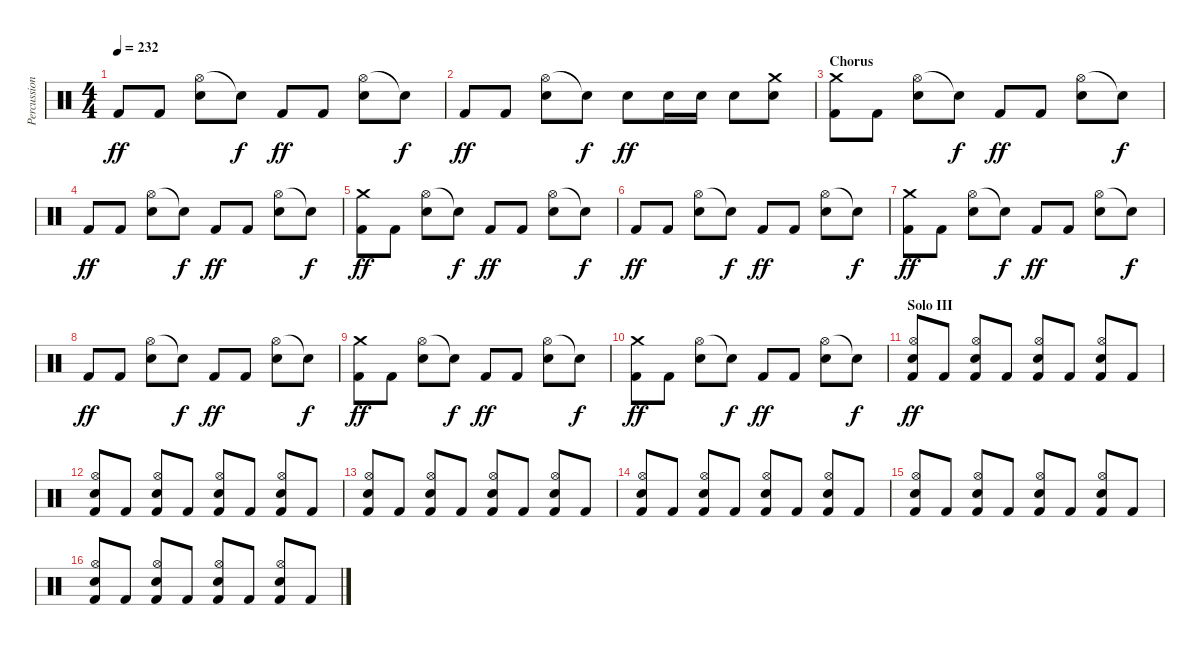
\track ("Percussion" "Percussion") {instrument percussion}
\staff {score}
\articulation defaults
\ts (4 4)
\tempo 232
\clef neutral
\ks c "Kick (hit) 2".8{dy ff} "Kick (hit) 2".8
("Hi-Hat (open)" "Snare (hit) 2").8 "Snare (hit)"{t}.8{dy f} "Kick (hit) 2".8{dy ff} "Kick (hit) 2".8 ("Hi-Hat (open)" "Snare (hit) 2").8 "Snare (hit)"{t}.8{dy f} |
"Kick (hit) 2".8{dy ff} "Kick (hit) 2".8 ("Hi-Hat (open)" "Snare (hit) 2").8 "Snare (hit)"{t}.8{dy f} "Snare (hit) 2".8{dy ff} "Snare (hit) 2".16 "Snare (hit) 2".16 "Snare (hit) 2".8 ("Crash medium (hit)" "Snare (hit) 2").8 |
\section ("" "Chorus")
("Crash medium (hit)" "Kick (hit) 2").8 "Kick (hit) 2".8 ("Hi-Hat (open)" "Snare (hit) 2").8 "Snare (hit)"{t}.8{dy f} "Kick (hit) 2".8{dy ff} "Kick (hit) 2".8 ("Hi-Hat (open)" "Snare (hit) 2").8 "Snare (hit)"{t}.8{dy f} |
"Kick (hit) 2".8{dy ff} "Kick (hit) 2".8 ("Hi-Hat (open)" "Snare (hit) 2").8 "Snare (hit)"{t}.8{dy f} "Kick (hit) 2".8{dy ff} "Kick (hit) 2".8 ("Hi-Hat (open)" "Snare (hit) 2").8 "Snare (hit)"{t}.8{dy f} |
("Crash medium (hit)" "Kick (hit) 2").8{dy ff} "Kick (hit) 2".8 ("Hi-Hat (open)" "Snare (hit) 2").8 "Snare (hit)"{t}.8{dy f} "Kick (hit) 2".8{dy ff} "Kick (hit) 2".8 ("Hi-Hat (open)" "Snare (hit) 2").8 "Snare (hit)"{t}.8{dy f} |
"Kick (hit) 2".8{dy ff} "Kick (hit) 2".8 ("Hi-Hat (open)" "Snare (hit) 2").8 "Snare (hit)"{t}.8{dy f} "Kick (hit) 2".8{dy ff} "Kick (hit) 2".8 ("Hi-Hat (open)" "Snare (hit) 2").8 "Snare (hit)"{t}.8{dy f} |
("Crash medium (hit)" "Kick (hit) 2").8{dy ff} "Kick (hit) 2".8 ("Hi-Hat (open)" "Snare (hit) 2").8 "Snare (hit)"{t}.8{dy f} "Kick (hit) 2".8{dy ff} "Kick (hit) 2".8 ("Hi-Hat (open)" "Snare (hit) 2").8 "Snare (hit)"{t}.8{dy f} |
"Kick (hit) 2".8{dy ff} "Kick (hit) 2".8 ("Hi-Hat (open)" "Snare (hit) 2").8 "Snare (hit)"{t}.8{dy f} "Kick (hit) 2".8{dy ff} "Kick (hit) 2".8 ("Hi-Hat (open)" "Snare (hit) 2").8 "Snare (hit)"{t}.8{dy f} |
("Crash medium (hit)" "Kick (hit) 2").8{dy ff} "Kick (hit) 2".8 ("Hi-Hat (open)" "Snare (hit) 2").8 "Snare (hit)"{t}.8{dy f} "Kick (hit) 2".8{dy ff} "Kick (hit) 2".8 ("Hi-Hat (open)" "Snare (hit) 2").8 "Snare (hit)"{t}.8{dy f} |
("Crash medium (hit)" "Kick (hit) 2").8{dy ff} "Kick (hit) 2".8 ("Hi-Hat (open)" "Snare (hit) 2").8 "Snare (hit)"{t}.8{dy f} "Kick (hit) 2".8{dy ff} "Kick (hit) 2".8 ("Hi-Hat (open)" "Snare (hit) 2").8 "Snare (hit)"{t}.8{dy f} |
\section ("" "Solo III")
("Hi-Hat (open)" "Snare (hit) 2" "Kick (hit) 2").8{dy ff} "Kick (hit) 2".8 ("Hi-Hat (open)" "Snare (hit) 2" "Kick (hit) 2").8 "Kick (hit) 2".8 ("Hi-Hat (open)" "Snare (hit) 2" "Kick (hit) 2").8 "Kick (hit) 2".8 ("Hi-Hat (open)" "Snare (hit) 2" "Kick (hit) 2").8 "Kick (hit) 2".8 |
("Hi-Hat (open)" "Snare (hit) 2" "Kick (hit) 2").8 "Kick (hit) 2".8 ("Hi-Hat (open)" "Snare (hit) 2" "Kick (hit) 2").8 "Kick (hit) 2".8 ("Hi-Hat (open)" "Snare (hit) 2" "Kick (hit) 2").8 "Kick (hit) 2".8 ("Hi-Hat (open)" "Snare (hit) 2" "Kick (hit) 2").8 "Kick (hit) 2".8 |
("Hi-Hat (open)" "Snare (hit) 2" "Kick (hit) 2").8 "Kick (hit) 2".8 ("Hi-Hat (open)" "Snare (hit) 2" "Kick (hit) 2").8 "Kick (hit) 2".8 ("Hi-Hat (open)" "Snare (hit) 2" "Kick (hit) 2").8 "Kick (hit) 2".8 ("Hi-Hat (open)" "Snare (hit) 2" "Kick (hit) 2").8 "Kick (hit) 2".8 |
("Hi-Hat (open)" "Snare (hit) 2" "Kick (hit) 2").8 "Kick (hit) 2".8 ("Hi-Hat (open)" "Snare (hit) 2" "Kick (hit) 2").8 "Kick (hit) 2".8 ("Hi-Hat (open)" "Snare (hit) 2" "Kick (hit) 2").8 "Kick (hit) 2".8 ("Hi-Hat (open)" "Snare (hit) 2" "Kick (hit) 2").8 "Kick (hit) 2".8 |
("Hi-Hat (open)" "Snare (hit) 2" "Kick (hit) 2").8 "Kick (hit) 2".8 ("Hi-Hat (open)" "Snare (hit) 2" "Kick (hit) 2").8 "Kick (hit) 2".8 ("Hi-Hat (open)" "Snare (hit) 2" "Kick (hit) 2").8 "Kick (hit) 2".8 ("Hi-Hat (open)" "Snare (hit) 2" "Kick (hit) 2").8 "Kick (hit) 2".8 |
("Hi-Hat (open)" "Snare (hit) 2" "Kick (hit) 2").8 "Kick (hit) 2".8 ("Hi-Hat (open)" "Snare (hit) 2" "Kick (hit) 2").8 "Kick (hit) 2".8 ("Hi-Hat (open)" "Snare (hit) 2" "Kick (hit) 2").8 "Kick (hit) 2".8 ("Hi-Hat (open)" "Snare (hit) 2" "Kick (hit) 2").8 "Kick (hit) 2".8
